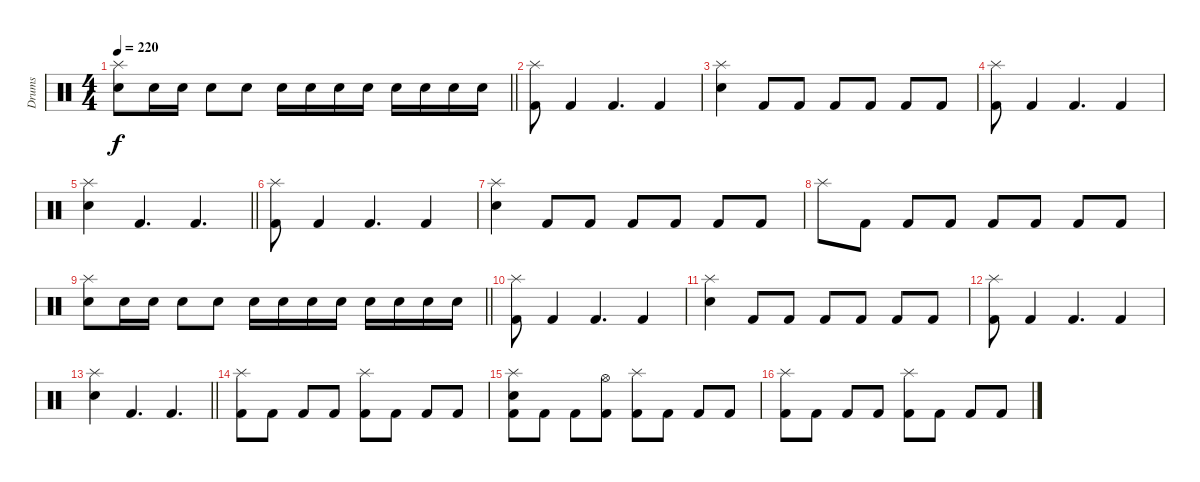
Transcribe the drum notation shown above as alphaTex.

\track ("Drums" "Drums") {instrument percussion}
\staff {score}
\articulation defaults
\ts (4 4)
\tempo 220
\clef neutral
\barLineRight lightlight
\ks c
("Splash (hit)" "Electric Snare (hit)").8{dy f} "Electric Snare (hit)".16 "Electric Snare (hit)".16 "Electric Snare (hit)".8 "Electric Snare (hit)".8 "Electric Snare (hit)".16 "Electric Snare (hit)".16 "Electric Snare (hit)".16 "Electric Snare (hit)".16 "Electric Snare (hit)".16 "Electric Snare (hit)".16 "Electric Snare (hit)".16 "Electric Snare (hit)".16 |
\section ("" "")
("Splash (hit)" "Kick (hit) 2").8 "Kick (hit) 2".4 "Kick (hit) 2".4{d} "Kick (hit) 2".4 |
("Splash (hit)" "Electric Snare (hit)").4 "Kick (hit) 2".8 "Kick (hit) 2".8 "Kick (hit) 2".8 "Kick (hit) 2".8 "Kick (hit) 2".8 "Kick (hit) 2".8 |
("Splash (hit)" "Kick (hit) 2").8 "Kick (hit) 2".4 "Kick (hit) 2".4{d} "Kick (hit) 2".4 |
\barLineRight lightlight
("Splash (hit)" "Electric Snare (hit)").4 "Kick (hit) 2".4{d} "Kick (hit) 2".4{d} |
("Splash (hit)" "Kick (hit) 2").8 "Kick (hit) 2".4 "Kick (hit) 2".4{d} "Kick (hit) 2".4 |
("Splash (hit)" "Electric Snare (hit)").4 "Kick (hit) 2".8 "Kick (hit) 2".8 "Kick (hit) 2".8 "Kick (hit) 2".8 "Kick (hit) 2".8 "Kick (hit) 2".8 |
"Splash (hit)".8 "Kick (hit) 2".8 "Kick (hit) 2".8 "Kick (hit) 2".8 "Kick (hit) 2".8 "Kick (hit) 2".8 "Kick (hit) 2".8 "Kick (hit) 2".8 |
\barLineRight lightlight
("Splash (hit)" "Electric Snare (hit)").8 "Electric Snare (hit)".16 "Electric Snare (hit)".16 "Electric Snare (hit)".8 "Electric Snare (hit)".8 "Electric Snare (hit)".16 "Electric Snare (hit)".16 "Electric Snare (hit)".16 "Electric Snare (hit)".16 "Electric Snare (hit)".16 "Electric Snare (hit)".16 "Electric Snare (hit)".16 "Electric Snare (hit)".16 |
\section ("" "")
("Splash (hit)" "Kick (hit) 2").8{volume 13} "Kick (hit) 2".4 "Kick (hit) 2".4{d} "Kick (hit) 2".4 |
("Splash (hit)" "Electric Snare (hit)").4 "Kick (hit) 2".8 "Kick (hit) 2".8 "Kick (hit) 2".8 "Kick (hit) 2".8 "Kick (hit) 2".8 "Kick (hit) 2".8 |
("Splash (hit)" "Kick (hit) 2").8 "Kick (hit) 2".4 "Kick (hit) 2".4{d} "Kick (hit) 2".4 |
\barLineRight lightlight
("Splash (hit)" "Electric Snare (hit)").4 "Kick (hit) 2".4{d} "Kick (hit) 2".4{d} |
("Splash (hit)" "Kick (hit) 2").8{volume 10} "Kick (hit) 2".8 "Kick (hit) 2".8 "Kick (hit) 2".8 ("Splash (hit)" "Kick (hit) 2").8 "Kick (hit) 2".8 "Kick (hit) 2".8 "Kick (hit) 2".8 |
("Splash (hit)" "Electric Snare (hit)" "Kick (hit) 2").8 "Kick (hit) 2".8 "Kick (hit) 2".8 ("Hi-Hat (open)" "Kick (hit) 2").8 ("Splash (hit)" "Kick (hit) 2").8 "Kick (hit) 2".8 "Kick (hit) 2".8 "Kick (hit) 2".8 |
("Splash (hit)" "Kick (hit) 2").8 "Kick (hit) 2".8 "Kick (hit) 2".8 "Kick (hit) 2".8 ("Splash (hit)" "Kick (hit) 2").8 "Kick (hit) 2".8 "Kick (hit) 2".8 "Kick (hit) 2".8
